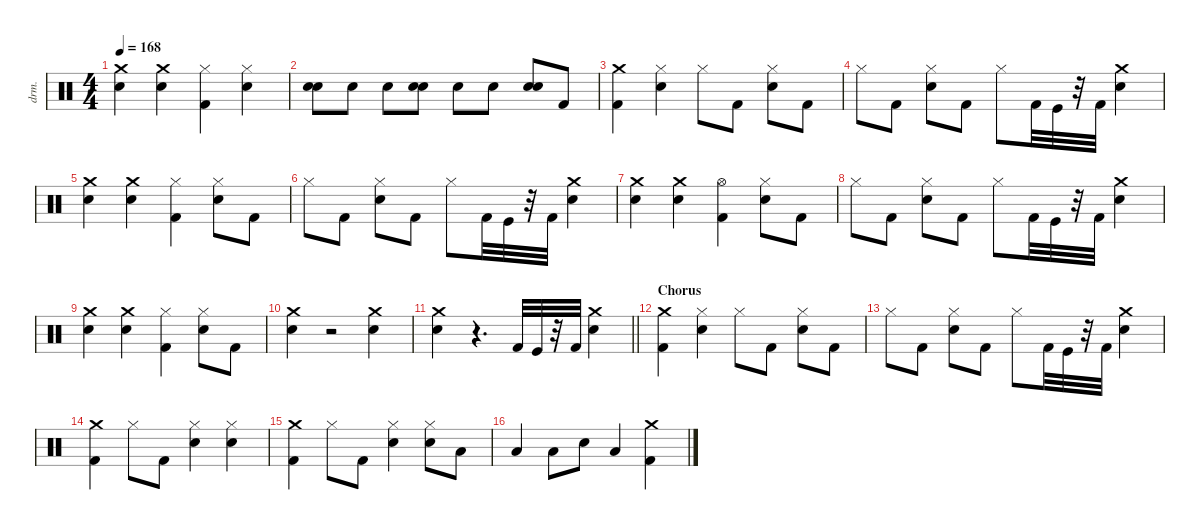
\defaultSystemsLayout 4
\hideDynamics
\bracketExtendMode nobrackets
\otherSystemsTrackNameOrientation horizontal
\track ("Drums" "drm.") {instrument percussion}
\staff {score}
\articulation defaults
\ts (4 4)
\tempo 168
\clef neutral
\ks c
("Snare (hit) 2" "Crash medium (hit)").4{dy fff} ("Snare (hit) 2" "Crash medium (hit)").4 ("Kick (hit) 2" "Hi-Hat (closed)").4 ("Hi-Hat (closed)" "Snare (hit) 2").4 |
("Snare (hit) 2" "Snare (hit) 2").8{dy f} "Snare (hit) 2".8{dy fff} "Snare (hit) 2".8 ("Snare (hit) 2" "Snare (hit) 2").8{dy f} "Snare (hit) 2".8{dy fff} "Snare (hit) 2".8 ("Snare (hit) 2" "Snare (hit) 2").8{dy f} "Kick (hit) 2".8{dy fff} |
("Kick (hit) 2" "Crash medium (hit)").4 ("Hi-Hat (closed)" "Snare (hit) 2").4 "Hi-Hat (closed)".8 "Kick (hit) 2".8 ("Snare (hit) 2" "Hi-Hat (closed)").8 "Kick (hit) 2".8 |
"Hi-Hat (closed)".8 "Kick (hit) 2".8 ("Snare (hit) 2" "Hi-Hat (closed)").8 "Kick (hit) 2".8 "Hi-Hat (closed)".8 "Kick (hit) 2".32 "Kick (hit)".32 r.32 "Kick (hit) 2".32 ("Crash medium (hit)" "Snare (hit) 2").4 |
("Crash medium (hit)" "Snare (hit) 2").4 ("Crash medium (hit)" "Snare (hit) 2").4 ("Hi-Hat (closed)" "Kick (hit) 2").4 ("Snare (hit) 2" "Hi-Hat (closed)").8 "Kick (hit) 2".8 |
"Hi-Hat (closed)".8 "Kick (hit) 2".8 ("Snare (hit) 2" "Hi-Hat (closed)").8 "Kick (hit) 2".8 "Hi-Hat (closed)".8 "Kick (hit) 2".32 "Kick (hit)".32 r.32 "Kick (hit) 2".32 ("Crash medium (hit)" "Snare (hit) 2").4 |
("Crash medium (hit)" "Snare (hit) 2").4 ("Crash medium (hit)" "Snare (hit) 2").4 ("Hi-Hat (open)" "Kick (hit) 2").4 ("Snare (hit) 2" "Hi-Hat (closed)").8 "Kick (hit) 2".8 |
"Hi-Hat (closed)".8 "Kick (hit) 2".8 ("Snare (hit) 2" "Hi-Hat (closed)").8 "Kick (hit) 2".8 "Hi-Hat (closed)".8 "Kick (hit) 2".32 "Kick (hit)".32 r.32 "Kick (hit) 2".32 ("Crash medium (hit)" "Snare (hit) 2").4 |
("Crash medium (hit)" "Snare (hit) 2").4 ("Crash medium (hit)" "Snare (hit) 2").4 ("Hi-Hat (closed)" "Kick (hit) 2").4 ("Snare (hit) 2" "Hi-Hat (closed)").8 "Kick (hit) 2".8 |
("Snare (hit) 2" "Crash medium (hit)").4 r.2 ("Crash medium (hit)" "Snare (hit) 2").4 |
\barLineRight lightlight
("Snare (hit) 2" "Crash medium (hit)").4 r.4{d} "Kick (hit) 2".32 "Kick (hit)".32 r.32 "Kick (hit) 2".32 ("Crash medium (hit)" "Snare (hit) 2").4 |
\section ("" "Chorus")
("Kick (hit) 2" "Crash medium (hit)").4 ("Hi-Hat (closed)" "Snare (hit) 2").4 "Hi-Hat (closed)".8 "Kick (hit) 2".8 ("Snare (hit) 2" "Hi-Hat (closed)").8 "Kick (hit) 2".8 |
"Hi-Hat (closed)".8 "Kick (hit) 2".8 ("Snare (hit) 2" "Hi-Hat (closed)").8 "Kick (hit) 2".8 "Hi-Hat (closed)".8 "Kick (hit) 2".32 "Kick (hit)".32 r.32 "Kick (hit) 2".32 ("Crash medium (hit)" "Snare (hit) 2").4 |
("Kick (hit) 2" "Crash medium (hit)").4 "Hi-Hat (closed)".8 "Kick (hit) 2".8 ("Snare (hit) 2" "Hi-Hat (closed)").4 ("Hi-Hat (closed)" "Snare (hit) 2").4 |
("Kick (hit) 2" "Crash medium (hit)").4 "Hi-Hat (closed)".8 "Kick (hit) 2".8 ("Snare (hit) 2" "Hi-Hat (closed)").4 ("Hi-Hat (closed)" "Snare (hit) 2").8 "Low Tom (hit)".8 |
"Low Tom (hit)".4 "Low Tom (hit)".8 "Snare (hit) 2".8 "Low Tom (hit)".4 ("Kick (hit) 2" "Crash medium (hit)").4
